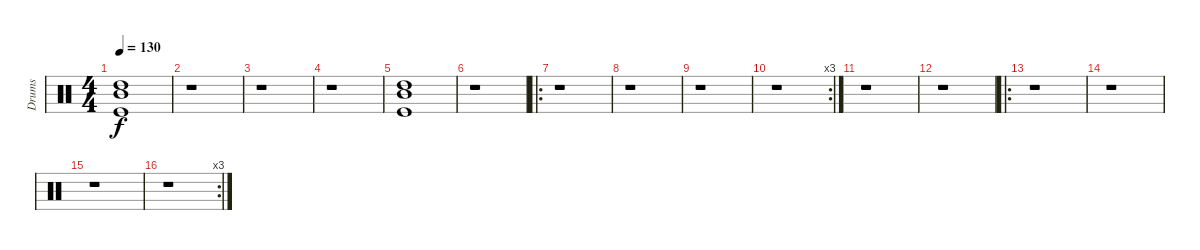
\track ("Drums" "Drums") {instrument percussion}
\staff {score}
\articulation defaults
\ts (4 4)
\tempo 130
\clef neutral
\ks c
("Mid Tom (hit)" "High Tom (hit)" "Kick (hit)").1{dy f} |
r.1 |
r.1 |
r.1 |
("Mid Tom (hit)" "High Tom (hit)" "Kick (hit)").1 |
r.1 |
\ro
r.1 |
r.1 |
r.1 |
\rc 3
r.1 |
r.1 |
r.1 |
\ro
r.1 |
r.1 |
r.1 |
\rc 3
r.1
